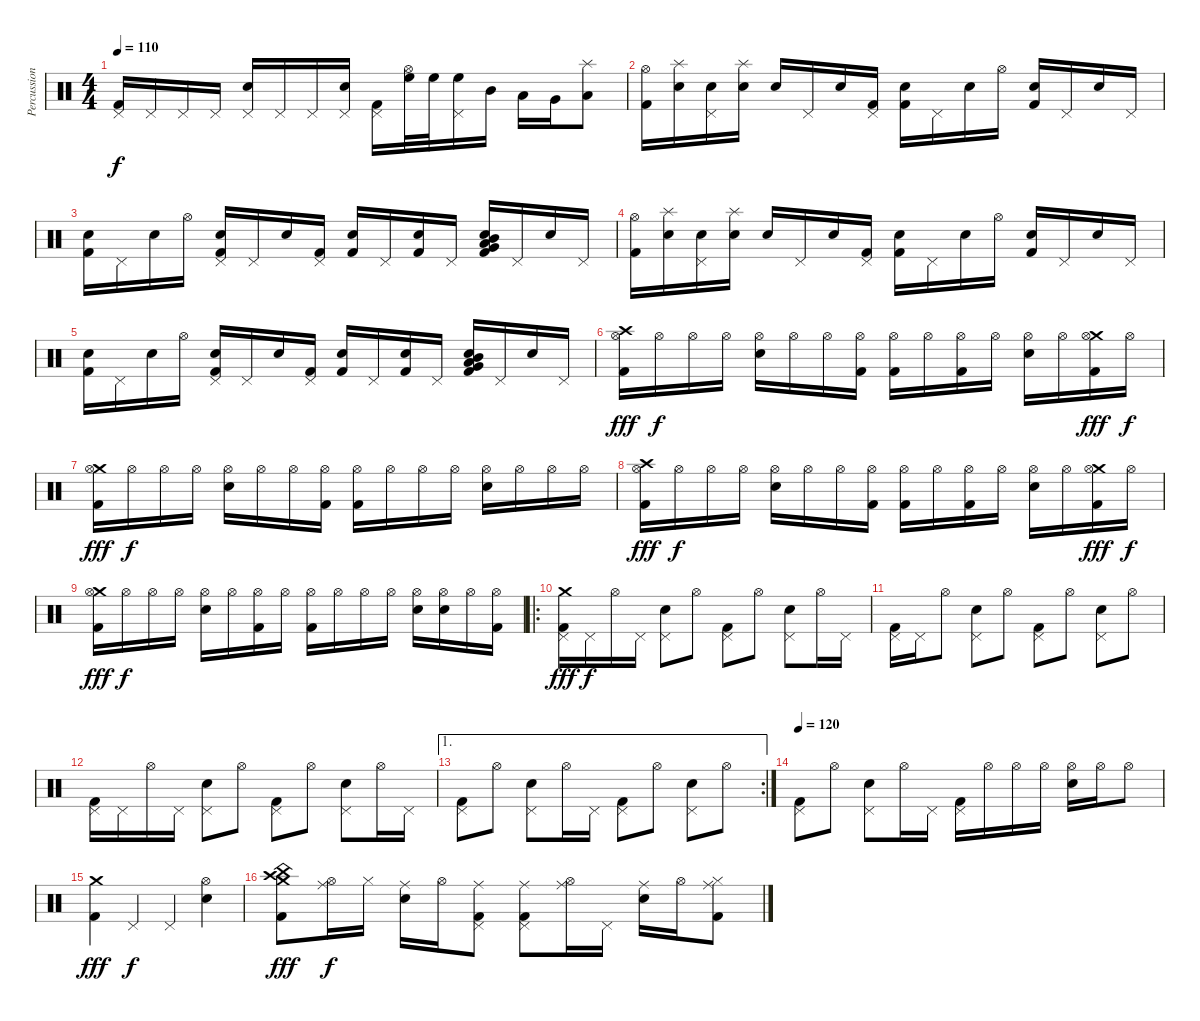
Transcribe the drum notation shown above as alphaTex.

\track ("Percussion" "Percussion") {instrument percussion}
\staff {score}
\articulation defaults
\ts (4 4)
\tempo 110
\clef neutral
\ks c
("Pedal Hi-Hat (hit)" "Kick (hit) 2").16{dy f} "Pedal Hi-Hat (hit)".16 "Pedal Hi-Hat (hit)".16 "Pedal Hi-Hat (hit)".16 ("Pedal Hi-Hat (hit)" "Electric Snare (hit)").16 "Pedal Hi-Hat (hit)".16 "Pedal Hi-Hat (hit)".16 ("Pedal Hi-Hat (hit)" "Electric Snare (hit)").16 ("Pedal Hi-Hat (hit)" "Kick (hit) 2").16 ("Hi-Hat (open)" "High Floor Tom (hit)").32 "High Floor Tom (hit)".32 ("Pedal Hi-Hat (hit)" "High Floor Tom (hit)").16 "Mid Tom (hit)".16 "Low Tom (hit)".16 "Very Low Tom (hit)".16 ("Splash (hit)" "Low Floor Tom (hit)").8 |
("Hi-Hat (open)" "Kick (hit) 2").16 ("Splash (hit)" "Electric Snare (hit)").16 ("Pedal Hi-Hat (hit)" "Electric Snare (hit)").16 ("Splash (hit)" "Electric Snare (hit)").16 "Electric Snare (hit)".16 "Pedal Hi-Hat (hit)".16 "Electric Snare (hit)".16 ("Pedal Hi-Hat (hit)" "Kick (hit) 2").16 ("Electric Snare (hit)" "Kick (hit) 2").16 "Pedal Hi-Hat (hit)".16 "Electric Snare (hit)".16 "Hi-Hat (open)".16 ("Electric Snare (hit)" "Kick (hit) 2").16 "Pedal Hi-Hat (hit)".16 "Electric Snare (hit)".16 "Pedal Hi-Hat (hit)".16 |
("Electric Snare (hit)" "Kick (hit) 2").16 "Pedal Hi-Hat (hit)".16 "Electric Snare (hit)".16 "Hi-Hat (open)".16 ("Pedal Hi-Hat (hit)" "Electric Snare (hit)" "Kick (hit) 2").16 "Pedal Hi-Hat (hit)".16 "Electric Snare (hit)".16 ("Pedal Hi-Hat (hit)" "Kick (hit) 2").16 ("Electric Snare (hit)" "Kick (hit) 2").16 "Pedal Hi-Hat (hit)".16 ("Electric Snare (hit)" "Kick (hit) 2").16 "Pedal Hi-Hat (hit)".16 ("Mid Tom (hit)" "Low Tom (hit)" "Electric Snare (hit)" "Very Low Tom (hit)" "Kick (hit) 2").16 "Pedal Hi-Hat (hit)".16 "Electric Snare (hit)".16 "Pedal Hi-Hat (hit)".16 |
("Hi-Hat (open)" "Kick (hit) 2").16 ("Splash (hit)" "Electric Snare (hit)").16 ("Pedal Hi-Hat (hit)" "Electric Snare (hit)").16 ("Splash (hit)" "Electric Snare (hit)").16 "Electric Snare (hit)".16 "Pedal Hi-Hat (hit)".16 "Electric Snare (hit)".16 ("Pedal Hi-Hat (hit)" "Kick (hit) 2").16 ("Electric Snare (hit)" "Kick (hit) 2").16 "Pedal Hi-Hat (hit)".16 "Electric Snare (hit)".16 "Hi-Hat (open)".16 ("Electric Snare (hit)" "Kick (hit) 2").16 "Pedal Hi-Hat (hit)".16 "Electric Snare (hit)".16 "Pedal Hi-Hat (hit)".16 |
("Electric Snare (hit)" "Kick (hit) 2").16 "Pedal Hi-Hat (hit)".16 "Electric Snare (hit)".16 "Hi-Hat (open)".16 ("Pedal Hi-Hat (hit)" "Electric Snare (hit)" "Kick (hit) 2").16 "Pedal Hi-Hat (hit)".16 "Electric Snare (hit)".16 ("Pedal Hi-Hat (hit)" "Kick (hit) 2").16 ("Electric Snare (hit)" "Kick (hit) 2").16 "Pedal Hi-Hat (hit)".16 ("Electric Snare (hit)" "Kick (hit) 2").16 "Pedal Hi-Hat (hit)".16 ("Mid Tom (hit)" "Low Tom (hit)" "Electric Snare (hit)" "Very Low Tom (hit)" "Kick (hit) 2").16 "Pedal Hi-Hat (hit)".16 "Electric Snare (hit)".16 "Pedal Hi-Hat (hit)".16 |
("Crash high (hit)" "Hi-Hat (open)" "Kick (hit) 2").16{dy fff} "Hi-Hat (open)".16{dy f} "Hi-Hat (open)".16 "Hi-Hat (open)".16 ("Hi-Hat (open)" "Electric Snare (hit)").16 "Hi-Hat (open)".16 "Hi-Hat (open)".16 ("Hi-Hat (open)" "Kick (hit) 2").16 ("Hi-Hat (open)" "Kick (hit) 2").16 "Hi-Hat (open)".16 ("Hi-Hat (open)" "Kick (hit) 2").16 "Hi-Hat (open)".16 ("Hi-Hat (open)" "Electric Snare (hit)").16 "Hi-Hat (open)".16 ("Crash medium (hit)" "Hi-Hat (open)" "Kick (hit) 2").16{dy fff} "Hi-Hat (open)".16{dy f} |
("Crash medium (hit)" "Hi-Hat (open)" "Kick (hit) 2").16{dy fff} "Hi-Hat (open)".16{dy f} "Hi-Hat (open)".16 "Hi-Hat (open)".16 ("Hi-Hat (open)" "Electric Snare (hit)").16 "Hi-Hat (open)".16 "Hi-Hat (open)".16 ("Hi-Hat (open)" "Kick (hit) 2").16 ("Hi-Hat (open)" "Kick (hit) 2").16 "Hi-Hat (open)".16 "Hi-Hat (open)".16 "Hi-Hat (open)".16 ("Hi-Hat (open)" "Electric Snare (hit)").16 "Hi-Hat (open)".16 "Hi-Hat (open)".16 "Hi-Hat (open)".16 |
("Crash high (hit)" "Hi-Hat (open)" "Kick (hit) 2").16{dy fff} "Hi-Hat (open)".16{dy f} "Hi-Hat (open)".16 "Hi-Hat (open)".16 ("Hi-Hat (open)" "Electric Snare (hit)").16 "Hi-Hat (open)".16 "Hi-Hat (open)".16 ("Hi-Hat (open)" "Kick (hit) 2").16 ("Hi-Hat (open)" "Kick (hit) 2").16 "Hi-Hat (open)".16 ("Hi-Hat (open)" "Kick (hit) 2").16 "Hi-Hat (open)".16 ("Hi-Hat (open)" "Electric Snare (hit)").16 "Hi-Hat (open)".16 ("Crash medium (hit)" "Hi-Hat (open)" "Kick (hit) 2").16{dy fff} "Hi-Hat (open)".16{dy f} |
("Crash medium (hit)" "Hi-Hat (open)" "Kick (hit) 2").16{dy fff} "Hi-Hat (open)".16{dy f} "Hi-Hat (open)".16 "Hi-Hat (open)".16 ("Hi-Hat (open)" "Electric Snare (hit)").16 "Hi-Hat (open)".16 ("Hi-Hat (open)" "Kick (hit) 2").16 "Hi-Hat (open)".16 ("Hi-Hat (open)" "Kick (hit) 2").16 "Hi-Hat (open)".16 "Hi-Hat (open)".16 "Hi-Hat (open)".16 ("Hi-Hat (open)" "Electric Snare (hit)").16 ("Hi-Hat (open)" "Electric Snare (hit)").16 "Hi-Hat (open)".16 ("Hi-Hat (open)" "Kick (hit) 2").16 |
\ro
("Crash medium (hit)" "Pedal Hi-Hat (hit)" "Kick (hit) 2").16{dy fff} "Pedal Hi-Hat (hit)".16{dy f} "Hi-Hat (open)".16 "Pedal Hi-Hat (hit)".16 ("Pedal Hi-Hat (hit)" "Electric Snare (hit)").8 "Hi-Hat (open)".8 ("Pedal Hi-Hat (hit)" "Kick (hit) 2").8 "Hi-Hat (open)".8 ("Pedal Hi-Hat (hit)" "Electric Snare (hit)").8 "Hi-Hat (open)".16 "Pedal Hi-Hat (hit)".16 |
("Pedal Hi-Hat (hit)" "Kick (hit) 2").16 "Pedal Hi-Hat (hit)".16 "Hi-Hat (open)".8 ("Pedal Hi-Hat (hit)" "Electric Snare (hit)").8 "Hi-Hat (open)".8 ("Pedal Hi-Hat (hit)" "Kick (hit) 2").8 "Hi-Hat (open)".8 ("Pedal Hi-Hat (hit)" "Electric Snare (hit)").8 "Hi-Hat (open)".8 |
("Pedal Hi-Hat (hit)" "Kick (hit) 2").16 "Pedal Hi-Hat (hit)".16 "Hi-Hat (open)".16 "Pedal Hi-Hat (hit)".16 ("Pedal Hi-Hat (hit)" "Electric Snare (hit)").8 "Hi-Hat (open)".8 ("Pedal Hi-Hat (hit)" "Kick (hit) 2").8 "Hi-Hat (open)".8 ("Pedal Hi-Hat (hit)" "Electric Snare (hit)").8 "Hi-Hat (open)".16 "Pedal Hi-Hat (hit)".16 |
\ae 1
\rc 2
("Pedal Hi-Hat (hit)" "Kick (hit) 2").8 "Hi-Hat (open)".8 ("Pedal Hi-Hat (hit)" "Electric Snare (hit)").8 "Hi-Hat (open)".16 "Pedal Hi-Hat (hit)".16 ("Pedal Hi-Hat (hit)" "Kick (hit) 2").8 "Hi-Hat (open)".8 ("Pedal Hi-Hat (hit)" "Electric Snare (hit)").8 "Hi-Hat (open)".8 |
\tempo 120
("Pedal Hi-Hat (hit)" "Kick (hit) 2").8 "Hi-Hat (open)".8 ("Pedal Hi-Hat (hit)" "Electric Snare (hit)").8 "Hi-Hat (open)".16 "Pedal Hi-Hat (hit)".16 ("Pedal Hi-Hat (hit)" "Kick (hit) 2").16 "Hi-Hat (open)".16 "Hi-Hat (open)".16 "Hi-Hat (open)".16 ("Hi-Hat (open)" "Electric Snare (hit)").16 "Hi-Hat (open)".16 "Hi-Hat (open)".8 |
("Crash medium (hit)" "Kick (hit) 2").4{dy fff} "Pedal Hi-Hat (hit)".4{dy f} "Pedal Hi-Hat (hit)".4 ("Hi-Hat (open)" "Electric Snare (hit)").4 |
("Crash medium (hit)" "China (hit)" "Crash high (hit)" "Kick (hit) 2").8{dy fff} ("Ride (middle)" "Hi-Hat (open)").16{dy f} "Hi-Hat (closed)".16 ("Ride (middle)" "Electric Snare (hit)").16 "Hi-Hat (open)".16 ("Ride (middle)" "Pedal Hi-Hat (hit)" "Kick (hit) 2").8 ("Ride (middle)" "Pedal Hi-Hat (hit)" "Kick (hit) 2").8 ("Ride (middle)" "Hi-Hat (open)").16 "Pedal Hi-Hat (hit)".16 ("Ride (middle)" "Electric Snare (hit)").16 "Hi-Hat (open)".16 ("Ride (middle)" "Hi-Hat (closed)" "Kick (hit) 2").8
